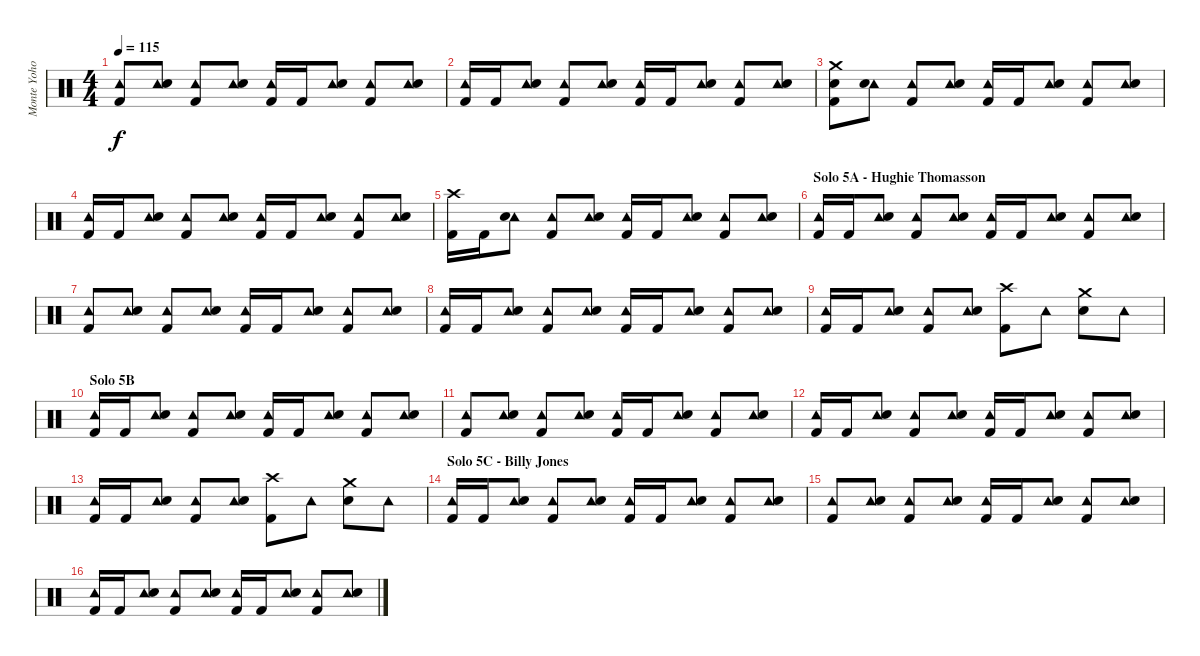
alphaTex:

\track ("Monte Yoho - Drums" "Monte Yoho") {instrument percussion}
\staff {score}
\articulation defaults
\ts (4 4)
\tempo 115
\clef neutral
\ks c
("Tambourine (hit)" "Kick (hit) 2").8{dy f} ("Tambourine (hit)" "Snare (hit) 2").8 ("Tambourine (hit)" "Kick (hit) 2").8 ("Tambourine (hit)" "Snare (hit) 2").8 ("Tambourine (hit)" "Kick (hit) 2").16 "Kick (hit) 2".16 ("Tambourine (hit)" "Snare (hit) 2").8 ("Tambourine (hit)" "Kick (hit) 2").8 ("Tambourine (hit)" "Snare (hit) 2").8 |
("Tambourine (hit)" "Kick (hit) 2").16 "Kick (hit) 2".16 ("Tambourine (hit)" "Snare (hit) 2").8 ("Tambourine (hit)" "Kick (hit) 2").8 ("Tambourine (hit)" "Snare (hit) 2").8 ("Tambourine (hit)" "Kick (hit) 2").16 "Kick (hit) 2".16 ("Tambourine (hit)" "Snare (hit) 2").8 ("Tambourine (hit)" "Kick (hit) 2").8 ("Tambourine (hit)" "Snare (hit) 2").8 |
("Crash medium (hit)" "Snare (hit) 2" "Kick (hit) 2").8 ("Tambourine (hit)" "Snare (hit) 2").8 ("Tambourine (hit)" "Kick (hit) 2").8 ("Tambourine (hit)" "Snare (hit) 2").8 ("Tambourine (hit)" "Kick (hit) 2").16 "Kick (hit) 2".16 ("Tambourine (hit)" "Snare (hit) 2").8 ("Tambourine (hit)" "Kick (hit) 2").8 ("Tambourine (hit)" "Snare (hit) 2").8 |
("Tambourine (hit)" "Kick (hit) 2").16 "Kick (hit) 2".16 ("Tambourine (hit)" "Snare (hit) 2").8 ("Tambourine (hit)" "Kick (hit) 2").8 ("Tambourine (hit)" "Snare (hit) 2").8 ("Tambourine (hit)" "Kick (hit) 2").16 "Kick (hit) 2".16 ("Tambourine (hit)" "Snare (hit) 2").8 ("Tambourine (hit)" "Kick (hit) 2").8 ("Tambourine (hit)" "Snare (hit) 2").8 |
("Crash high (hit)" "Kick (hit) 2").16 "Kick (hit) 2".16 ("Tambourine (hit)" "Snare (hit) 2").8 ("Tambourine (hit)" "Kick (hit) 2").8 ("Tambourine (hit)" "Snare (hit) 2").8 ("Tambourine (hit)" "Kick (hit) 2").16 "Kick (hit) 2".16 ("Tambourine (hit)" "Snare (hit) 2").8 ("Tambourine (hit)" "Kick (hit) 2").8 ("Tambourine (hit)" "Snare (hit) 2").8 |
\section ("" "Solo 5A - Hughie Thomasson")
("Tambourine (hit)" "Kick (hit) 2").16 "Kick (hit) 2".16 ("Tambourine (hit)" "Snare (hit) 2").8 ("Tambourine (hit)" "Kick (hit) 2").8 ("Tambourine (hit)" "Snare (hit) 2").8 ("Tambourine (hit)" "Kick (hit) 2").16 "Kick (hit) 2".16 ("Tambourine (hit)" "Snare (hit) 2").8 ("Tambourine (hit)" "Kick (hit) 2").8 ("Tambourine (hit)" "Snare (hit) 2").8 |
("Tambourine (hit)" "Kick (hit) 2").8 ("Tambourine (hit)" "Snare (hit) 2").8 ("Tambourine (hit)" "Kick (hit) 2").8 ("Tambourine (hit)" "Snare (hit) 2").8 ("Tambourine (hit)" "Kick (hit) 2").16 "Kick (hit) 2".16 ("Tambourine (hit)" "Snare (hit) 2").8 ("Tambourine (hit)" "Kick (hit) 2").8 ("Tambourine (hit)" "Snare (hit) 2").8 |
("Tambourine (hit)" "Kick (hit) 2").16 "Kick (hit) 2".16 ("Tambourine (hit)" "Snare (hit) 2").8 ("Tambourine (hit)" "Kick (hit) 2").8 ("Tambourine (hit)" "Snare (hit) 2").8 ("Tambourine (hit)" "Kick (hit) 2").16 "Kick (hit) 2".16 ("Tambourine (hit)" "Snare (hit) 2").8 ("Tambourine (hit)" "Kick (hit) 2").8 ("Tambourine (hit)" "Snare (hit) 2").8 |
("Tambourine (hit)" "Kick (hit) 2").16 "Kick (hit) 2".16 ("Tambourine (hit)" "Snare (hit) 2").8 ("Tambourine (hit)" "Kick (hit) 2").8 ("Tambourine (hit)" "Snare (hit) 2").8 ("Crash high (hit)" "Kick (hit) 2").8 "Tambourine (hit)".8 ("Crash medium (hit)" "Snare (hit) 2").8 "Tambourine (hit)".8 |
\section ("" "Solo 5B")
("Tambourine (hit)" "Kick (hit) 2").16 "Kick (hit) 2".16 ("Tambourine (hit)" "Snare (hit) 2").8 ("Tambourine (hit)" "Kick (hit) 2").8 ("Tambourine (hit)" "Snare (hit) 2").8 ("Tambourine (hit)" "Kick (hit) 2").16 "Kick (hit) 2".16 ("Tambourine (hit)" "Snare (hit) 2").8 ("Tambourine (hit)" "Kick (hit) 2").8 ("Tambourine (hit)" "Snare (hit) 2").8 |
("Tambourine (hit)" "Kick (hit) 2").8 ("Tambourine (hit)" "Snare (hit) 2").8 ("Tambourine (hit)" "Kick (hit) 2").8 ("Tambourine (hit)" "Snare (hit) 2").8 ("Tambourine (hit)" "Kick (hit) 2").16 "Kick (hit) 2".16 ("Tambourine (hit)" "Snare (hit) 2").8 ("Tambourine (hit)" "Kick (hit) 2").8 ("Tambourine (hit)" "Snare (hit) 2").8 |
("Tambourine (hit)" "Kick (hit) 2").16 "Kick (hit) 2".16 ("Tambourine (hit)" "Snare (hit) 2").8 ("Tambourine (hit)" "Kick (hit) 2").8 ("Tambourine (hit)" "Snare (hit) 2").8 ("Tambourine (hit)" "Kick (hit) 2").16 "Kick (hit) 2".16 ("Tambourine (hit)" "Snare (hit) 2").8 ("Tambourine (hit)" "Kick (hit) 2").8 ("Tambourine (hit)" "Snare (hit) 2").8 |
("Tambourine (hit)" "Kick (hit) 2").16 "Kick (hit) 2".16 ("Tambourine (hit)" "Snare (hit) 2").8 ("Tambourine (hit)" "Kick (hit) 2").8 ("Tambourine (hit)" "Snare (hit) 2").8 ("Crash high (hit)" "Kick (hit) 2").8 "Tambourine (hit)".8 ("Crash medium (hit)" "Snare (hit) 2").8 "Tambourine (hit)".8 |
\section ("" "Solo 5C - Billy Jones")
("Tambourine (hit)" "Kick (hit) 2").16 "Kick (hit) 2".16 ("Tambourine (hit)" "Snare (hit) 2").8 ("Tambourine (hit)" "Kick (hit) 2").8 ("Tambourine (hit)" "Snare (hit) 2").8 ("Tambourine (hit)" "Kick (hit) 2").16 "Kick (hit) 2".16 ("Tambourine (hit)" "Snare (hit) 2").8 ("Tambourine (hit)" "Kick (hit) 2").8 ("Tambourine (hit)" "Snare (hit) 2").8 |
("Tambourine (hit)" "Kick (hit) 2").8 ("Tambourine (hit)" "Snare (hit) 2").8 ("Tambourine (hit)" "Kick (hit) 2").8 ("Tambourine (hit)" "Snare (hit) 2").8 ("Tambourine (hit)" "Kick (hit) 2").16 "Kick (hit) 2".16 ("Tambourine (hit)" "Snare (hit) 2").8 ("Tambourine (hit)" "Kick (hit) 2").8 ("Tambourine (hit)" "Snare (hit) 2").8 |
("Tambourine (hit)" "Kick (hit) 2").16 "Kick (hit) 2".16 ("Tambourine (hit)" "Snare (hit) 2").8 ("Tambourine (hit)" "Kick (hit) 2").8 ("Tambourine (hit)" "Snare (hit) 2").8 ("Tambourine (hit)" "Kick (hit) 2").16 "Kick (hit) 2".16 ("Tambourine (hit)" "Snare (hit) 2").8 ("Tambourine (hit)" "Kick (hit) 2").8 ("Tambourine (hit)" "Snare (hit) 2").8
